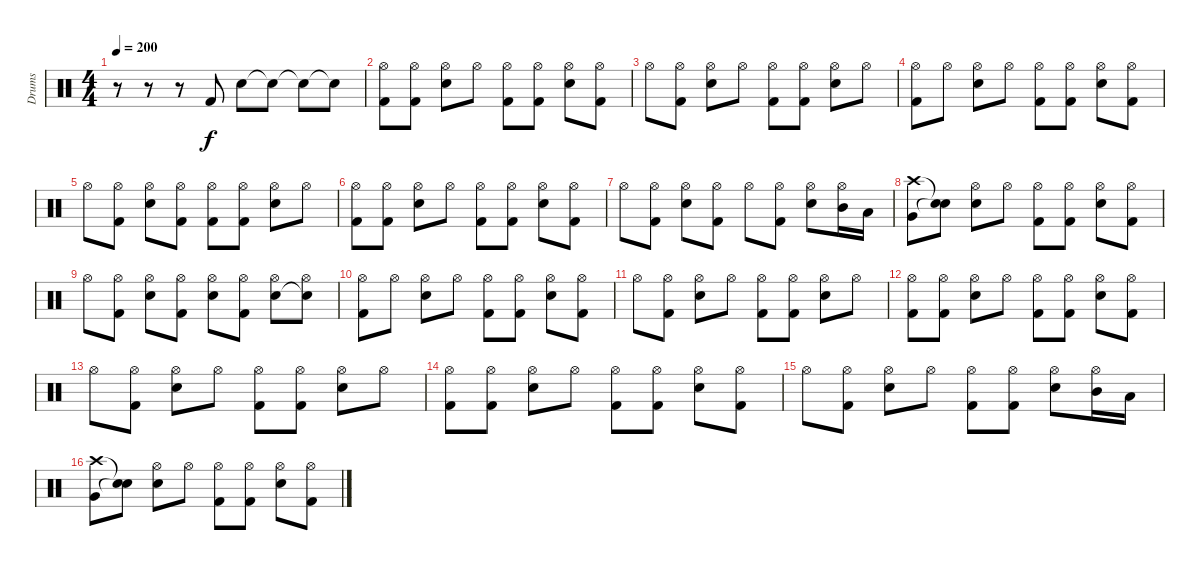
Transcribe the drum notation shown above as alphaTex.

\track ("Drums" "Drums") {instrument percussion}
\staff {score}
\articulation defaults
\ts (4 4)
\tempo 200
\clef neutral
\ks c
r.8{dy f} r.8 r.8 "Kick (hit) 2".8 "Electric Snare (hit)".8 "Electric Snare (hit)"{t}.8 "Snare (hit)"{t}.8 "Snare (hit)"{t}.8 |
("Hi-Hat (open)" "Kick (hit) 2").8 ("Hi-Hat (open)" "Kick (hit) 2").8 ("Hi-Hat (open)" "Electric Snare (hit)").8 "Hi-Hat (open)".8 ("Hi-Hat (open)" "Kick (hit) 2").8 ("Hi-Hat (open)" "Kick (hit) 2").8 ("Hi-Hat (open)" "Electric Snare (hit)").8 ("Hi-Hat (open)" "Kick (hit) 2").8 |
"Hi-Hat (open)".8 ("Hi-Hat (open)" "Kick (hit) 2").8 ("Hi-Hat (open)" "Electric Snare (hit)").8 "Hi-Hat (open)".8 ("Hi-Hat (open)" "Kick (hit) 2").8 ("Hi-Hat (open)" "Kick (hit) 2").8 ("Hi-Hat (open)" "Electric Snare (hit)").8 "Hi-Hat (open)".8 |
("Hi-Hat (open)" "Kick (hit) 2").8 "Hi-Hat (open)".8 ("Hi-Hat (open)" "Electric Snare (hit)").8 "Hi-Hat (open)".8 ("Hi-Hat (open)" "Kick (hit) 2").8 ("Hi-Hat (open)" "Kick (hit) 2").8 ("Hi-Hat (open)" "Electric Snare (hit)").8 ("Hi-Hat (open)" "Kick (hit) 2").8 |
"Hi-Hat (open)".8 ("Hi-Hat (open)" "Kick (hit) 2").8 ("Hi-Hat (open)" "Electric Snare (hit)").8 ("Hi-Hat (open)" "Kick (hit) 2").8 ("Hi-Hat (open)" "Kick (hit) 2").8 ("Hi-Hat (open)" "Kick (hit) 2").8 ("Hi-Hat (open)" "Electric Snare (hit)").8 "Hi-Hat (open)".8 |
("Hi-Hat (open)" "Kick (hit) 2").8 ("Hi-Hat (open)" "Kick (hit) 2").8 ("Hi-Hat (open)" "Electric Snare (hit)").8 "Hi-Hat (open)".8 ("Hi-Hat (open)" "Kick (hit) 2").8 ("Hi-Hat (open)" "Kick (hit) 2").8 ("Hi-Hat (open)" "Electric Snare (hit)").8 ("Hi-Hat (open)" "Kick (hit) 2").8 |
"Hi-Hat (open)".8 ("Hi-Hat (open)" "Kick (hit) 2").8 ("Hi-Hat (open)" "Electric Snare (hit)").8 ("Hi-Hat (open)" "Kick (hit) 2").8 "Hi-Hat (open)".8 ("Hi-Hat (open)" "Kick (hit) 2").8 ("Hi-Hat (open)" "Electric Snare (hit)").8 ("Hi-Hat (open)" "Mid Tom (hit)").16 "Low Tom (hit)".16 |
("Crash high (hit)" "Very Low Tom (hit)").8 ("Snare (hit)"{t} "Snare (hit)"{t}).8 ("Hi-Hat (open)" "Electric Snare (hit)").8 "Hi-Hat (open)".8 ("Hi-Hat (open)" "Kick (hit) 2").8 ("Hi-Hat (open)" "Kick (hit) 2").8 ("Hi-Hat (open)" "Electric Snare (hit)").8 ("Hi-Hat (open)" "Kick (hit) 2").8 |
"Hi-Hat (open)".8 ("Hi-Hat (open)" "Kick (hit) 2").8 ("Hi-Hat (open)" "Electric Snare (hit)").8 ("Hi-Hat (open)" "Kick (hit) 2").8 ("Hi-Hat (open)" "Electric Snare (hit)").8 ("Hi-Hat (open)" "Kick (hit) 2").8 ("Hi-Hat (open)" "Electric Snare (hit)").8 ("Hi-Hat (open)" "Electric Snare (hit)"{t}).8 |
("Hi-Hat (open)" "Kick (hit) 2").8 "Hi-Hat (open)".8 ("Hi-Hat (open)" "Electric Snare (hit)").8 "Hi-Hat (open)".8 ("Hi-Hat (open)" "Kick (hit) 2").8 ("Hi-Hat (open)" "Kick (hit) 2").8 ("Hi-Hat (open)" "Electric Snare (hit)").8 ("Hi-Hat (open)" "Kick (hit) 2").8 |
"Hi-Hat (open)".8 ("Hi-Hat (open)" "Kick (hit) 2").8 ("Hi-Hat (open)" "Electric Snare (hit)").8 "Hi-Hat (open)".8 ("Hi-Hat (open)" "Kick (hit) 2").8 ("Hi-Hat (open)" "Kick (hit) 2").8 ("Hi-Hat (open)" "Electric Snare (hit)").8 "Hi-Hat (open)".8 |
("Hi-Hat (open)" "Kick (hit) 2").8 ("Hi-Hat (open)" "Kick (hit) 2").8 ("Hi-Hat (open)" "Electric Snare (hit)").8 "Hi-Hat (open)".8 ("Hi-Hat (open)" "Kick (hit) 2").8 ("Hi-Hat (open)" "Kick (hit) 2").8 ("Hi-Hat (open)" "Electric Snare (hit)").8 ("Hi-Hat (open)" "Kick (hit) 2").8 |
"Hi-Hat (open)".8 ("Hi-Hat (open)" "Kick (hit) 2").8 ("Hi-Hat (open)" "Electric Snare (hit)").8 "Hi-Hat (open)".8 ("Hi-Hat (open)" "Kick (hit) 2").8 ("Hi-Hat (open)" "Kick (hit) 2").8 ("Hi-Hat (open)" "Electric Snare (hit)").8 "Hi-Hat (open)".8 |
("Hi-Hat (open)" "Kick (hit) 2").8 ("Hi-Hat (open)" "Kick (hit) 2").8 ("Hi-Hat (open)" "Electric Snare (hit)").8 "Hi-Hat (open)".8 ("Hi-Hat (open)" "Kick (hit) 2").8 ("Hi-Hat (open)" "Kick (hit) 2").8 ("Hi-Hat (open)" "Electric Snare (hit)").8 ("Hi-Hat (open)" "Kick (hit) 2").8 |
"Hi-Hat (open)".8 ("Hi-Hat (open)" "Kick (hit) 2").8 ("Hi-Hat (open)" "Electric Snare (hit)").8 "Hi-Hat (open)".8 ("Hi-Hat (open)" "Kick (hit) 2").8 ("Hi-Hat (open)" "Kick (hit) 2").8 ("Hi-Hat (open)" "Electric Snare (hit)").8 ("Hi-Hat (open)" "Mid Tom (hit)").16 "Low Tom (hit)".16 |
("Crash high (hit)" "Very Low Tom (hit)").8 ("Snare (hit)"{t} "Snare (hit)"{t}).8 ("Hi-Hat (open)" "Electric Snare (hit)").8 "Hi-Hat (open)".8 ("Hi-Hat (open)" "Kick (hit) 2").8 ("Hi-Hat (open)" "Kick (hit) 2").8 ("Hi-Hat (open)" "Electric Snare (hit)").8 ("Hi-Hat (open)" "Kick (hit) 2").8
